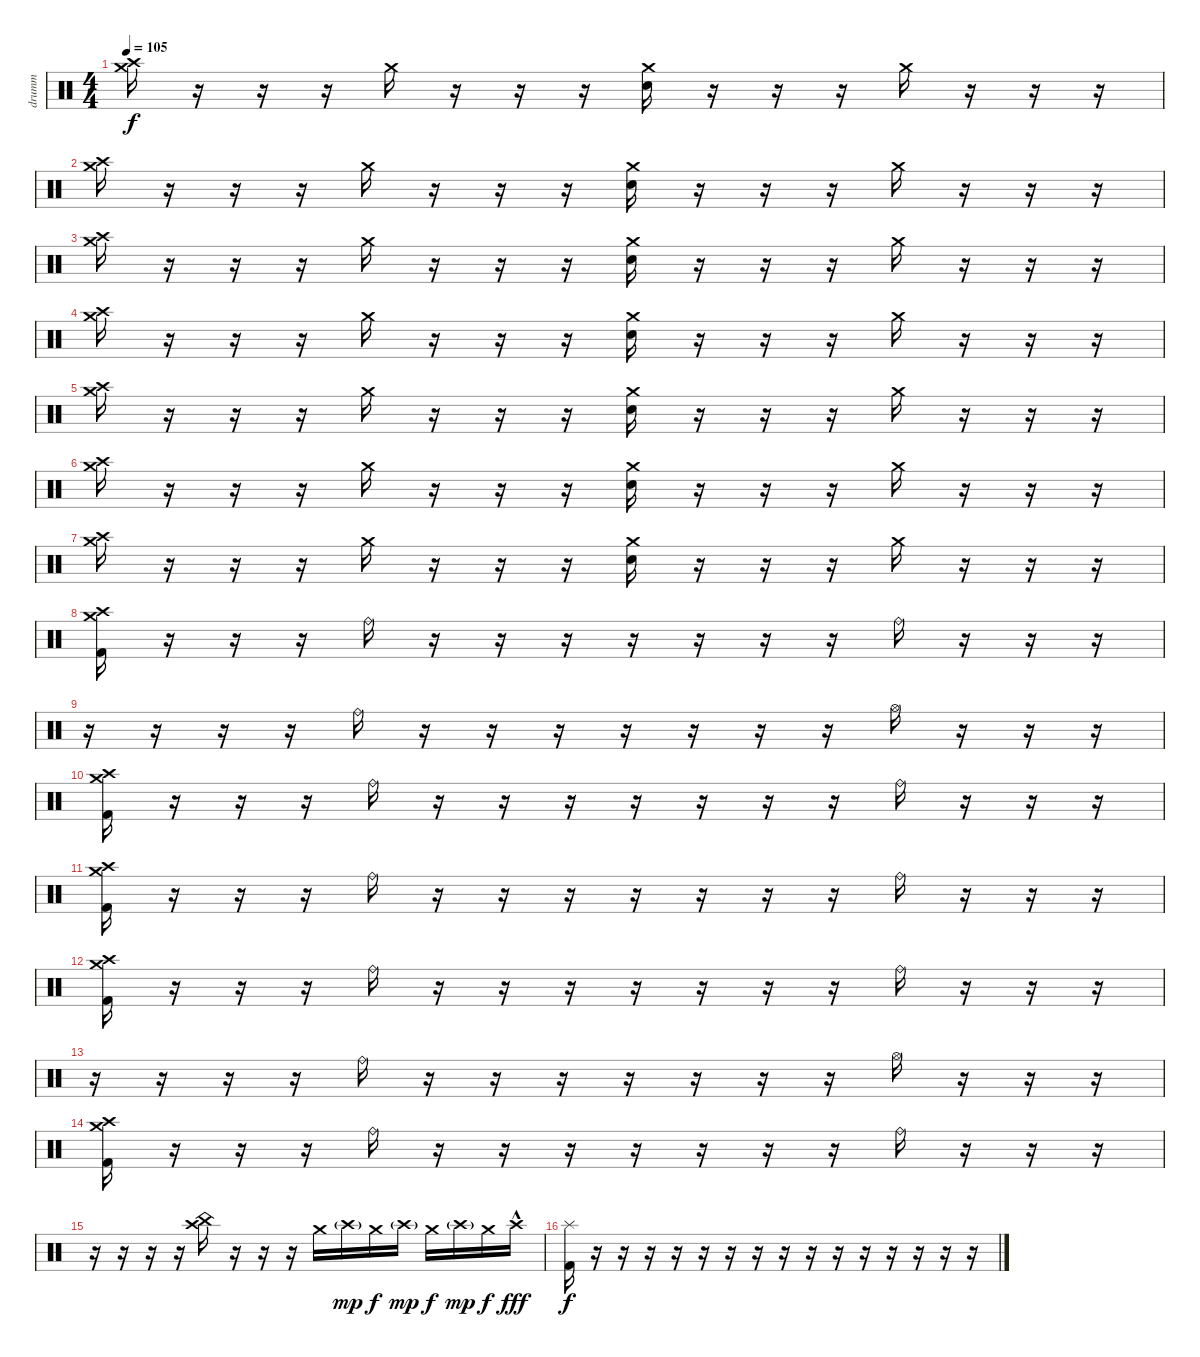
\track ("drumm" "drumm") {instrument percussion}
\staff
\articulation defaults
\ts (4 4)
\tempo 105
\clef neutral
\ks c
("Crash medium (hit)" "Crash high (hit)").16{dy f} r.16 r.16 r.16 "Crash medium (hit)".16 r.16 r.16 r.16 ("Electric Snare (hit)" "Crash medium (hit)").16 r.16 r.16 r.16 "Crash medium (hit)".16 r.16 r.16 r.16 |
("Crash medium (hit)" "Crash high (hit)").16 r.16 r.16 r.16 "Crash medium (hit)".16 r.16 r.16 r.16 ("Electric Snare (hit)" "Crash medium (hit)").16 r.16 r.16 r.16 "Crash medium (hit)".16 r.16 r.16 r.16 |
("Crash medium (hit)" "Crash high (hit)").16 r.16 r.16 r.16 "Crash medium (hit)".16 r.16 r.16 r.16 ("Electric Snare (hit)" "Crash medium (hit)").16 r.16 r.16 r.16 "Crash medium (hit)".16 r.16 r.16 r.16 |
("Crash medium (hit)" "Crash high (hit)").16 r.16 r.16 r.16 "Crash medium (hit)".16 r.16 r.16 r.16 ("Electric Snare (hit)" "Crash medium (hit)").16 r.16 r.16 r.16 "Crash medium (hit)".16 r.16 r.16 r.16 |
("Crash medium (hit)" "Crash high (hit)").16 r.16 r.16 r.16 "Crash medium (hit)".16 r.16 r.16 r.16 ("Electric Snare (hit)" "Crash medium (hit)").16 r.16 r.16 r.16 "Crash medium (hit)".16 r.16 r.16 r.16 |
("Crash medium (hit)" "Crash high (hit)").16 r.16 r.16 r.16 "Crash medium (hit)".16 r.16 r.16 r.16 ("Electric Snare (hit)" "Crash medium (hit)").16 r.16 r.16 r.16 "Crash medium (hit)".16 r.16 r.16 r.16 |
("Crash medium (hit)" "Crash high (hit)").16 r.16 r.16 r.16 "Crash medium (hit)".16 r.16 r.16 r.16 ("Electric Snare (hit)" "Crash medium (hit)").16 r.16 r.16 r.16 "Crash medium (hit)".16 r.16 r.16 r.16 |
("Kick (hit) 2" "Crash medium (hit)" "Crash high (hit)").16 r.16 r.16 r.16 "Ride (bell)".16 r.16 r.16 r.16 r.16 r.16 r.16 r.16 "Ride (bell)".16 r.16 r.16 r.16 |
r.16 r.16 r.16 r.16 "Ride (bell)".16 r.16 r.16 r.16 r.16 r.16 r.16 r.16 "Hi-Hat (open)".16 r.16 r.16 r.16 |
("Kick (hit) 2" "Crash medium (hit)" "Crash high (hit)").16 r.16 r.16 r.16 "Ride (bell)".16 r.16 r.16 r.16 r.16 r.16 r.16 r.16 "Ride (bell)".16 r.16 r.16 r.16 |
("Kick (hit) 2" "Crash medium (hit)" "Crash high (hit)").16 r.16 r.16 r.16 "Ride (bell)".16 r.16 r.16 r.16 r.16 r.16 r.16 r.16 "Ride (bell)".16 r.16 r.16 r.16 |
("Kick (hit) 2" "Crash medium (hit)" "Crash high (hit)").16 r.16 r.16 r.16 "Ride (bell)".16 r.16 r.16 r.16 r.16 r.16 r.16 r.16 "Ride (bell)".16 r.16 r.16 r.16 |
r.16 r.16 r.16 r.16 "Ride (bell)".16 r.16 r.16 r.16 r.16 r.16 r.16 r.16 "Hi-Hat (open)".16 r.16 r.16 r.16 |
("Kick (hit) 2" "Crash medium (hit)" "Crash high (hit)").16 r.16 r.16 r.16 "Ride (bell)".16 r.16 r.16 r.16 r.16 r.16 r.16 r.16 "Ride (bell)".16 r.16 r.16 r.16 |
r.16 r.16 r.16 r.16 ("China (hit)" "Crash high (hit)").16 r.16 r.16 r.16 "Crash medium (hit)".16 "Crash high (hit)"{g}.16{dy mp} "Crash medium (hit)".16{dy f} "Crash high (hit)"{g}.16{dy mp} "Crash medium (hit)".16{dy f} "Crash high (hit)"{g}.16{dy mp} "Crash medium (hit)".16{dy f} "Crash high (hit)"{hac}.16{dy fff} |
("Kick (hit) 2" "Splash (hit)").16{dy f} r.16 r.16 r.16 r.16 r.16 r.16 r.16 r.16 r.16 r.16 r.16 r.16 r.16 r.16 r.16
